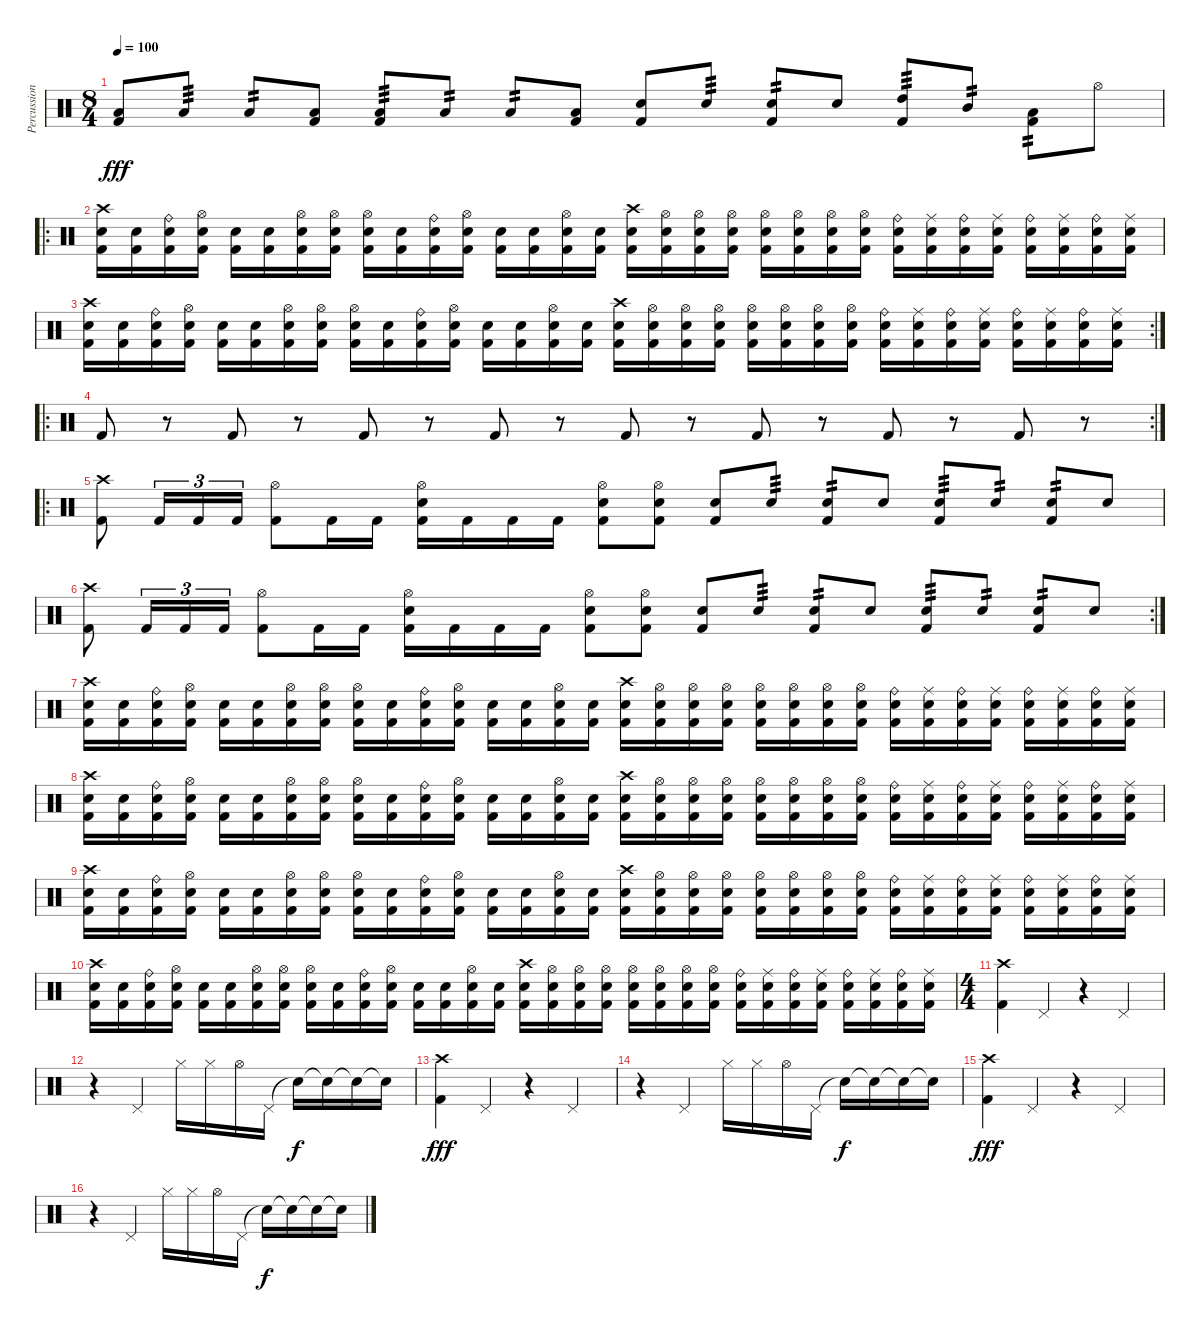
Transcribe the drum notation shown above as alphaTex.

\track ("Percussion" "Percussion") {instrument percussion}
\staff {score}
\articulation defaults
\ts (8 4)
\tempo 100
\clef neutral
\ks c
("Low Floor Tom (hit)" "Kick (hit) 2").8{dy fff} "Low Floor Tom (hit)".8{tp 3} "Low Floor Tom (hit)".8{tp 2} ("Low Floor Tom (hit)" "Kick (hit) 2").8 ("Low Floor Tom (hit)" "Kick (hit) 2").8{tp 3} "Low Floor Tom (hit)".8{tp 2} "Low Floor Tom (hit)".8{tp 2} ("Low Floor Tom (hit)" "Kick (hit) 2").8 ("Electric Snare (hit)" "Kick (hit) 2").8 "Electric Snare (hit)".8{tp 3} ("Electric Snare (hit)" "Kick (hit) 2").8{tp 2} "Electric Snare (hit)".8 ("High Tom (hit)" "Kick (hit) 2").8{tp 3} "Mid Tom (hit)".8{tp 2} ("Low Tom (hit)" "Kick (hit) 2").8{tp 2} "Hi-Hat (open)".8 |
\ro
("Kick (hit) 2" "Electric Snare (hit)" "Crash high (hit)").16 ("Kick (hit) 2" "Electric Snare (hit)").16 ("Kick (hit) 2" "Electric Snare (hit)" "Ride (bell)").16 ("Kick (hit) 2" "Electric Snare (hit)" "Hi-Hat (open)").16 ("Kick (hit) 2" "Electric Snare (hit)").16 ("Kick (hit) 2" "Electric Snare (hit)").16 ("Kick (hit) 2" "Electric Snare (hit)" "Hi-Hat (open)").16 ("Kick (hit) 2" "Electric Snare (hit)" "Hi-Hat (open)").16 ("Kick (hit) 2" "Electric Snare (hit)" "Hi-Hat (open)").16 ("Kick (hit) 2" "Electric Snare (hit)").16 ("Kick (hit) 2" "Electric Snare (hit)" "Ride (bell)").16 ("Kick (hit) 2" "Electric Snare (hit)" "Hi-Hat (open)").16 ("Kick (hit) 2" "Electric Snare (hit)").16 ("Kick (hit) 2" "Electric Snare (hit)").16 ("Kick (hit) 2" "Electric Snare (hit)" "Hi-Hat (open)").16 ("Kick (hit) 2" "Electric Snare (hit)").16 ("Kick (hit) 2" "Electric Snare (hit)" "Crash high (hit)").16 ("Kick (hit) 2" "Electric Snare (hit)" "Hi-Hat (open)").16 ("Kick (hit) 2" "Electric Snare (hit)" "Hi-Hat (open)").16 ("Kick (hit) 2" "Electric Snare (hit)" "Hi-Hat (open)").16 ("Kick (hit) 2" "Electric Snare (hit)" "Hi-Hat (open)").16 ("Kick (hit) 2" "Electric Snare (hit)" "Hi-Hat (open)").16 ("Kick (hit) 2" "Electric Snare (hit)" "Hi-Hat (open)").16 ("Kick (hit) 2" "Electric Snare (hit)" "Hi-Hat (open)").16 ("Kick (hit) 2" "Electric Snare (hit)" "Ride (bell)").16 ("Kick (hit) 2" "Electric Snare (hit)" "Ride (middle)").16 ("Kick (hit) 2" "Electric Snare (hit)" "Ride (bell)").16 ("Kick (hit) 2" "Electric Snare (hit)" "Ride (middle)").16 ("Kick (hit) 2" "Electric Snare (hit)" "Ride (bell)").16 ("Kick (hit) 2" "Electric Snare (hit)" "Ride (middle)").16 ("Kick (hit) 2" "Electric Snare (hit)" "Ride (bell)").16 ("Kick (hit) 2" "Electric Snare (hit)" "Ride (middle)").16 |
\rc 2
("Kick (hit) 2" "Electric Snare (hit)" "Crash high (hit)").16 ("Kick (hit) 2" "Electric Snare (hit)").16 ("Kick (hit) 2" "Electric Snare (hit)" "Ride (bell)").16 ("Kick (hit) 2" "Electric Snare (hit)" "Hi-Hat (open)").16 ("Kick (hit) 2" "Electric Snare (hit)").16 ("Kick (hit) 2" "Electric Snare (hit)").16 ("Kick (hit) 2" "Electric Snare (hit)" "Hi-Hat (open)").16 ("Kick (hit) 2" "Electric Snare (hit)" "Hi-Hat (open)").16 ("Kick (hit) 2" "Electric Snare (hit)" "Hi-Hat (open)").16 ("Kick (hit) 2" "Electric Snare (hit)").16 ("Kick (hit) 2" "Electric Snare (hit)" "Ride (bell)").16 ("Kick (hit) 2" "Electric Snare (hit)" "Hi-Hat (open)").16 ("Kick (hit) 2" "Electric Snare (hit)").16 ("Kick (hit) 2" "Electric Snare (hit)").16 ("Kick (hit) 2" "Electric Snare (hit)" "Hi-Hat (open)").16 ("Kick (hit) 2" "Electric Snare (hit)").16 ("Kick (hit) 2" "Electric Snare (hit)" "Crash high (hit)").16 ("Kick (hit) 2" "Electric Snare (hit)" "Hi-Hat (open)").16 ("Kick (hit) 2" "Electric Snare (hit)" "Hi-Hat (open)").16 ("Kick (hit) 2" "Electric Snare (hit)" "Hi-Hat (open)").16 ("Kick (hit) 2" "Electric Snare (hit)" "Hi-Hat (open)").16 ("Kick (hit) 2" "Electric Snare (hit)" "Hi-Hat (open)").16 ("Kick (hit) 2" "Electric Snare (hit)" "Hi-Hat (open)").16 ("Kick (hit) 2" "Electric Snare (hit)" "Hi-Hat (open)").16 ("Kick (hit) 2" "Electric Snare (hit)" "Ride (bell)").16 ("Kick (hit) 2" "Electric Snare (hit)" "Ride (middle)").16 ("Kick (hit) 2" "Electric Snare (hit)" "Ride (bell)").16 ("Kick (hit) 2" "Electric Snare (hit)" "Ride (middle)").16 ("Kick (hit) 2" "Electric Snare (hit)" "Ride (bell)").16 ("Kick (hit) 2" "Electric Snare (hit)" "Ride (middle)").16 ("Kick (hit) 2" "Electric Snare (hit)" "Ride (bell)").16 ("Kick (hit) 2" "Electric Snare (hit)" "Ride (middle)").16 |
\ro
\rc 2 "Kick (hit) 2".8
r.8 "Kick (hit) 2".8 r.8 "Kick (hit) 2".8 r.8 "Kick (hit) 2".8 r.8 "Kick (hit) 2".8 r.8 "Kick (hit) 2".8 r.8 "Kick (hit) 2".8 r.8 "Kick (hit) 2".8 r.8 |
\ro
("Crash high (hit)" "Kick (hit) 2").8 "Kick (hit) 2".16{tu (3 2)} "Kick (hit) 2".16{tu (3 2)} "Kick (hit) 2".16{tu (3 2)} ("Kick (hit) 2" "Hi-Hat (open)").8 "Kick (hit) 2".16 "Kick (hit) 2".16 ("Kick (hit) 2" "Hi-Hat (open)" "Electric Snare (hit)").16 "Kick (hit) 2".16 "Kick (hit) 2".16 "Kick (hit) 2".16 ("Kick (hit) 2" "Hi-Hat (open)" "Electric Snare (hit)").8 ("Kick (hit) 2" "Hi-Hat (open)" "Electric Snare (hit)").8 ("Electric Snare (hit)" "Kick (hit) 2").8 "Electric Snare (hit)".8{tp 3} ("Electric Snare (hit)" "Kick (hit) 2").8{tp 2} "Electric Snare (hit)".8 ("Electric Snare (hit)" "Kick (hit) 2").8{tp 3} "Electric Snare (hit)".8{tp 2} ("Electric Snare (hit)" "Kick (hit) 2").8{tp 2} "Electric Snare (hit)".8 |
\rc 2
("Crash high (hit)" "Kick (hit) 2").8 "Kick (hit) 2".16{tu (3 2)} "Kick (hit) 2".16{tu (3 2)} "Kick (hit) 2".16{tu (3 2)} ("Kick (hit) 2" "Hi-Hat (open)").8 "Kick (hit) 2".16 "Kick (hit) 2".16 ("Kick (hit) 2" "Hi-Hat (open)" "Electric Snare (hit)").16 "Kick (hit) 2".16 "Kick (hit) 2".16 "Kick (hit) 2".16 ("Kick (hit) 2" "Hi-Hat (open)" "Electric Snare (hit)").8 ("Kick (hit) 2" "Hi-Hat (open)" "Electric Snare (hit)").8 ("Electric Snare (hit)" "Kick (hit) 2").8 "Electric Snare (hit)".8{tp 3} ("Electric Snare (hit)" "Kick (hit) 2").8{tp 2} "Electric Snare (hit)".8 ("Electric Snare (hit)" "Kick (hit) 2").8{tp 3} "Electric Snare (hit)".8{tp 2} ("Electric Snare (hit)" "Kick (hit) 2").8{tp 2} "Electric Snare (hit)".8 |
("Kick (hit) 2" "Electric Snare (hit)" "Crash high (hit)").16 ("Kick (hit) 2" "Electric Snare (hit)").16 ("Kick (hit) 2" "Electric Snare (hit)" "Ride (bell)").16 ("Kick (hit) 2" "Electric Snare (hit)" "Hi-Hat (open)").16 ("Kick (hit) 2" "Electric Snare (hit)").16 ("Kick (hit) 2" "Electric Snare (hit)").16 ("Kick (hit) 2" "Electric Snare (hit)" "Hi-Hat (open)").16 ("Kick (hit) 2" "Electric Snare (hit)" "Hi-Hat (open)").16 ("Kick (hit) 2" "Electric Snare (hit)" "Hi-Hat (open)").16 ("Kick (hit) 2" "Electric Snare (hit)").16 ("Kick (hit) 2" "Electric Snare (hit)" "Ride (bell)").16 ("Kick (hit) 2" "Electric Snare (hit)" "Hi-Hat (open)").16 ("Kick (hit) 2" "Electric Snare (hit)").16 ("Kick (hit) 2" "Electric Snare (hit)").16 ("Kick (hit) 2" "Electric Snare (hit)" "Hi-Hat (open)").16 ("Kick (hit) 2" "Electric Snare (hit)").16 ("Kick (hit) 2" "Electric Snare (hit)" "Crash high (hit)").16 ("Kick (hit) 2" "Electric Snare (hit)" "Hi-Hat (open)").16 ("Kick (hit) 2" "Electric Snare (hit)" "Hi-Hat (open)").16 ("Kick (hit) 2" "Electric Snare (hit)" "Hi-Hat (open)").16 ("Kick (hit) 2" "Electric Snare (hit)" "Hi-Hat (open)").16 ("Kick (hit) 2" "Electric Snare (hit)" "Hi-Hat (open)").16 ("Kick (hit) 2" "Electric Snare (hit)" "Hi-Hat (open)").16 ("Kick (hit) 2" "Electric Snare (hit)" "Hi-Hat (open)").16 ("Kick (hit) 2" "Electric Snare (hit)" "Ride (bell)").16 ("Kick (hit) 2" "Electric Snare (hit)" "Ride (middle)").16 ("Kick (hit) 2" "Electric Snare (hit)" "Ride (bell)").16 ("Kick (hit) 2" "Electric Snare (hit)" "Ride (middle)").16 ("Kick (hit) 2" "Electric Snare (hit)" "Ride (bell)").16 ("Kick (hit) 2" "Electric Snare (hit)" "Ride (middle)").16 ("Kick (hit) 2" "Electric Snare (hit)" "Ride (bell)").16 ("Kick (hit) 2" "Electric Snare (hit)" "Ride (middle)").16 |
("Kick (hit) 2" "Electric Snare (hit)" "Crash high (hit)").16 ("Kick (hit) 2" "Electric Snare (hit)").16 ("Kick (hit) 2" "Electric Snare (hit)" "Ride (bell)").16 ("Kick (hit) 2" "Electric Snare (hit)" "Hi-Hat (open)").16 ("Kick (hit) 2" "Electric Snare (hit)").16 ("Kick (hit) 2" "Electric Snare (hit)").16 ("Kick (hit) 2" "Electric Snare (hit)" "Hi-Hat (open)").16 ("Kick (hit) 2" "Electric Snare (hit)" "Hi-Hat (open)").16 ("Kick (hit) 2" "Electric Snare (hit)" "Hi-Hat (open)").16 ("Kick (hit) 2" "Electric Snare (hit)").16 ("Kick (hit) 2" "Electric Snare (hit)" "Ride (bell)").16 ("Kick (hit) 2" "Electric Snare (hit)" "Hi-Hat (open)").16 ("Kick (hit) 2" "Electric Snare (hit)").16 ("Kick (hit) 2" "Electric Snare (hit)").16 ("Kick (hit) 2" "Electric Snare (hit)" "Hi-Hat (open)").16 ("Kick (hit) 2" "Electric Snare (hit)").16 ("Kick (hit) 2" "Electric Snare (hit)" "Crash high (hit)").16 ("Kick (hit) 2" "Electric Snare (hit)" "Hi-Hat (open)").16 ("Kick (hit) 2" "Electric Snare (hit)" "Hi-Hat (open)").16 ("Kick (hit) 2" "Electric Snare (hit)" "Hi-Hat (open)").16 ("Kick (hit) 2" "Electric Snare (hit)" "Hi-Hat (open)").16 ("Kick (hit) 2" "Electric Snare (hit)" "Hi-Hat (open)").16 ("Kick (hit) 2" "Electric Snare (hit)" "Hi-Hat (open)").16 ("Kick (hit) 2" "Electric Snare (hit)" "Hi-Hat (open)").16 ("Kick (hit) 2" "Electric Snare (hit)" "Ride (bell)").16 ("Kick (hit) 2" "Electric Snare (hit)" "Ride (middle)").16 ("Kick (hit) 2" "Electric Snare (hit)" "Ride (bell)").16 ("Kick (hit) 2" "Electric Snare (hit)" "Ride (middle)").16 ("Kick (hit) 2" "Electric Snare (hit)" "Ride (bell)").16 ("Kick (hit) 2" "Electric Snare (hit)" "Ride (middle)").16 ("Kick (hit) 2" "Electric Snare (hit)" "Ride (bell)").16 ("Kick (hit) 2" "Electric Snare (hit)" "Ride (middle)").16 |
("Kick (hit) 2" "Electric Snare (hit)" "Crash high (hit)").16 ("Kick (hit) 2" "Electric Snare (hit)").16 ("Kick (hit) 2" "Electric Snare (hit)" "Ride (bell)").16 ("Kick (hit) 2" "Electric Snare (hit)" "Hi-Hat (open)").16 ("Kick (hit) 2" "Electric Snare (hit)").16 ("Kick (hit) 2" "Electric Snare (hit)").16 ("Kick (hit) 2" "Electric Snare (hit)" "Hi-Hat (open)").16 ("Kick (hit) 2" "Electric Snare (hit)" "Hi-Hat (open)").16 ("Kick (hit) 2" "Electric Snare (hit)" "Hi-Hat (open)").16 ("Kick (hit) 2" "Electric Snare (hit)").16 ("Kick (hit) 2" "Electric Snare (hit)" "Ride (bell)").16 ("Kick (hit) 2" "Electric Snare (hit)" "Hi-Hat (open)").16 ("Kick (hit) 2" "Electric Snare (hit)").16 ("Kick (hit) 2" "Electric Snare (hit)").16 ("Kick (hit) 2" "Electric Snare (hit)" "Hi-Hat (open)").16 ("Kick (hit) 2" "Electric Snare (hit)").16 ("Kick (hit) 2" "Electric Snare (hit)" "Crash high (hit)").16 ("Kick (hit) 2" "Electric Snare (hit)" "Hi-Hat (open)").16 ("Kick (hit) 2" "Electric Snare (hit)" "Hi-Hat (open)").16 ("Kick (hit) 2" "Electric Snare (hit)" "Hi-Hat (open)").16 ("Kick (hit) 2" "Electric Snare (hit)" "Hi-Hat (open)").16 ("Kick (hit) 2" "Electric Snare (hit)" "Hi-Hat (open)").16 ("Kick (hit) 2" "Electric Snare (hit)" "Hi-Hat (open)").16 ("Kick (hit) 2" "Electric Snare (hit)" "Hi-Hat (open)").16 ("Kick (hit) 2" "Electric Snare (hit)" "Ride (bell)").16 ("Kick (hit) 2" "Electric Snare (hit)" "Ride (middle)").16 ("Kick (hit) 2" "Electric Snare (hit)" "Ride (bell)").16 ("Kick (hit) 2" "Electric Snare (hit)" "Ride (middle)").16 ("Kick (hit) 2" "Electric Snare (hit)" "Ride (bell)").16 ("Kick (hit) 2" "Electric Snare (hit)" "Ride (middle)").16 ("Kick (hit) 2" "Electric Snare (hit)" "Ride (bell)").16 ("Kick (hit) 2" "Electric Snare (hit)" "Ride (middle)").16 |
("Kick (hit) 2" "Electric Snare (hit)" "Crash high (hit)").16 ("Kick (hit) 2" "Electric Snare (hit)").16 ("Kick (hit) 2" "Electric Snare (hit)" "Ride (bell)").16 ("Kick (hit) 2" "Electric Snare (hit)" "Hi-Hat (open)").16 ("Kick (hit) 2" "Electric Snare (hit)").16 ("Kick (hit) 2" "Electric Snare (hit)").16 ("Kick (hit) 2" "Electric Snare (hit)" "Hi-Hat (open)").16 ("Kick (hit) 2" "Electric Snare (hit)" "Hi-Hat (open)").16 ("Kick (hit) 2" "Electric Snare (hit)" "Hi-Hat (open)").16 ("Kick (hit) 2" "Electric Snare (hit)").16 ("Kick (hit) 2" "Electric Snare (hit)" "Ride (bell)").16 ("Kick (hit) 2" "Electric Snare (hit)" "Hi-Hat (open)").16 ("Kick (hit) 2" "Electric Snare (hit)").16 ("Kick (hit) 2" "Electric Snare (hit)").16 ("Kick (hit) 2" "Electric Snare (hit)" "Hi-Hat (open)").16 ("Kick (hit) 2" "Electric Snare (hit)").16 ("Kick (hit) 2" "Electric Snare (hit)" "Crash high (hit)").16 ("Kick (hit) 2" "Electric Snare (hit)" "Hi-Hat (open)").16 ("Kick (hit) 2" "Electric Snare (hit)" "Hi-Hat (open)").16 ("Kick (hit) 2" "Electric Snare (hit)" "Hi-Hat (open)").16 ("Kick (hit) 2" "Electric Snare (hit)" "Hi-Hat (open)").16 ("Kick (hit) 2" "Electric Snare (hit)" "Hi-Hat (open)").16 ("Kick (hit) 2" "Electric Snare (hit)" "Hi-Hat (open)").16 ("Kick (hit) 2" "Electric Snare (hit)" "Hi-Hat (open)").16 ("Kick (hit) 2" "Electric Snare (hit)" "Ride (bell)").16 ("Kick (hit) 2" "Electric Snare (hit)" "Ride (middle)").16 ("Kick (hit) 2" "Electric Snare (hit)" "Ride (bell)").16 ("Kick (hit) 2" "Electric Snare (hit)" "Ride (middle)").16 ("Kick (hit) 2" "Electric Snare (hit)" "Ride (bell)").16 ("Kick (hit) 2" "Electric Snare (hit)" "Ride (middle)").16 ("Kick (hit) 2" "Electric Snare (hit)" "Ride (bell)").16 ("Kick (hit) 2" "Electric Snare (hit)" "Ride (middle)").16 |
\ts (4 4)
("Crash high (hit)" "Kick (hit) 2").4 "Pedal Hi-Hat (hit)".4 r.4 "Pedal Hi-Hat (hit)".4 |
r.4 "Pedal Hi-Hat (hit)".4 "Hi-Hat (closed)".16 "Hi-Hat (closed)".16 "Hi-Hat (open)".16 "Pedal Hi-Hat (hit)".16 "Snare (hit)"{t}.16{dy f} "Snare (hit)"{t}.16 "Snare (hit)"{t}.16 "Snare (hit)"{t}.16 |
("Crash high (hit)" "Kick (hit) 2").4{dy fff} "Pedal Hi-Hat (hit)".4 r.4 "Pedal Hi-Hat (hit)".4 |
r.4 "Pedal Hi-Hat (hit)".4 "Hi-Hat (closed)".16 "Hi-Hat (closed)".16 "Hi-Hat (open)".16 "Pedal Hi-Hat (hit)".16 "Snare (hit)"{t}.16{dy f} "Snare (hit)"{t}.16 "Snare (hit)"{t}.16 "Snare (hit)"{t}.16 |
("Crash high (hit)" "Kick (hit) 2").4{dy fff} "Pedal Hi-Hat (hit)".4 r.4 "Pedal Hi-Hat (hit)".4 |
r.4 "Pedal Hi-Hat (hit)".4 "Hi-Hat (closed)".16 "Hi-Hat (closed)".16 "Hi-Hat (open)".16 "Pedal Hi-Hat (hit)".16 "Snare (hit)"{t}.16{dy f} "Snare (hit)"{t}.16 "Snare (hit)"{t}.16 "Snare (hit)"{t}.16
